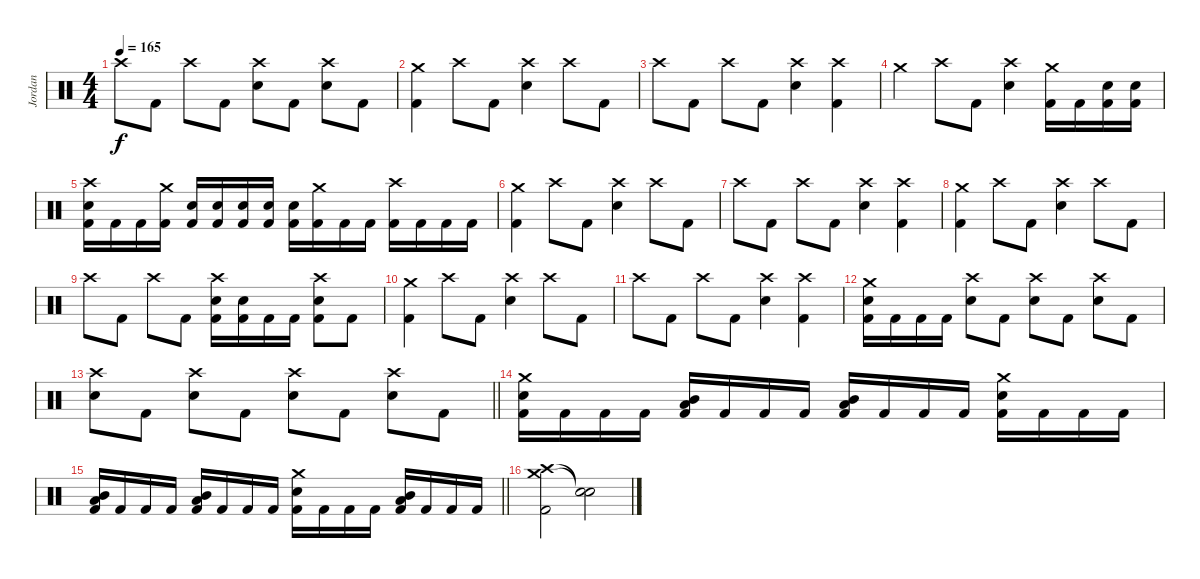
\track ("Jordan" "Jordan") {instrument percussion}
\staff {score}
\articulation defaults
\ts (4 4)
\tempo 165
\clef neutral
\ks c "Crash high (hit)".8{dy f} "Kick (hit) 2".8 "Crash high (hit)".8 "Kick (hit) 2".8
("Crash high (hit)" "Electric Snare (hit)").8 "Kick (hit) 2".8 ("Crash high (hit)" "Electric Snare (hit)").8 "Kick (hit) 2".8 |
("Crash medium (hit)" "Kick (hit) 2").4 "Crash high (hit)".8 "Kick (hit) 2".8 ("Crash high (hit)" "Electric Snare (hit)").4 "Crash high (hit)".8 "Kick (hit) 2".8 |
"Crash high (hit)".8 "Kick (hit) 2".8 "Crash high (hit)".8 "Kick (hit) 2".8 ("Crash high (hit)" "Electric Snare (hit)").4 ("Crash high (hit)" "Kick (hit) 2").4 |
"Crash medium (hit)".4 "Crash high (hit)".8 "Kick (hit) 2".8 ("Crash high (hit)" "Electric Snare (hit)").4 ("Crash medium (hit)" "Kick (hit) 2").16 "Kick (hit) 2".16 ("Electric Snare (hit)" "Kick (hit) 2").16 ("Electric Snare (hit)" "Kick (hit) 2").16 |
("Crash high (hit)" "Electric Snare (hit)" "Kick (hit) 2").16 "Kick (hit) 2".16 "Kick (hit) 2".16 ("Crash medium (hit)" "Kick (hit) 2").16 ("Electric Snare (hit)" "Kick (hit) 2").16 ("Electric Snare (hit)" "Kick (hit) 2").16 ("Electric Snare (hit)" "Kick (hit) 2").16 ("Electric Snare (hit)" "Kick (hit) 2").16 ("Electric Snare (hit)" "Kick (hit) 2").16 ("Crash medium (hit)" "Kick (hit) 2").16 "Kick (hit) 2".16 "Kick (hit) 2".16 ("Crash high (hit)" "Kick (hit) 2").16 "Kick (hit) 2".16 "Kick (hit) 2".16 "Kick (hit) 2".16 |
("Crash medium (hit)" "Kick (hit) 2").4 "Crash high (hit)".8 "Kick (hit) 2".8 ("Crash high (hit)" "Electric Snare (hit)").4 "Crash high (hit)".8 "Kick (hit) 2".8 |
"Crash high (hit)".8 "Kick (hit) 2".8 "Crash high (hit)".8 "Kick (hit) 2".8 ("Crash high (hit)" "Electric Snare (hit)").4 ("Crash high (hit)" "Kick (hit) 2").4 |
("Crash medium (hit)" "Kick (hit) 2").4 "Crash high (hit)".8 "Kick (hit) 2".8 ("Crash high (hit)" "Electric Snare (hit)").4 "Crash high (hit)".8 "Kick (hit) 2".8 |
"Crash high (hit)".8 "Kick (hit) 2".8 "Crash high (hit)".8 "Kick (hit) 2".8 ("Crash high (hit)" "Electric Snare (hit)" "Kick (hit) 2").16 ("Electric Snare (hit)" "Kick (hit) 2").16 "Kick (hit) 2".16 "Kick (hit) 2".16 ("Crash high (hit)" "Electric Snare (hit)" "Kick (hit) 2").8 "Kick (hit) 2".8 |
("Crash medium (hit)" "Kick (hit) 2").4 "Crash high (hit)".8 "Kick (hit) 2".8 ("Crash high (hit)" "Electric Snare (hit)").4 "Crash high (hit)".8 "Kick (hit) 2".8 |
"Crash high (hit)".8 "Kick (hit) 2".8 "Crash high (hit)".8 "Kick (hit) 2".8 ("Crash high (hit)" "Electric Snare (hit)").4 ("Crash high (hit)" "Kick (hit) 2").4 |
("Crash medium (hit)" "Electric Snare (hit)" "Kick (hit) 2").16 "Kick (hit) 2".16 "Kick (hit) 2".16 "Kick (hit) 2".16 ("Crash high (hit)" "Electric Snare (hit)").8 "Kick (hit) 2".8 ("Crash high (hit)" "Electric Snare (hit)").8 "Kick (hit) 2".8 ("Crash high (hit)" "Electric Snare (hit)").8 "Kick (hit) 2".8 |
\barLineRight lightlight
("Crash high (hit)" "Electric Snare (hit)").8 "Kick (hit) 2".8 ("Crash high (hit)" "Electric Snare (hit)").8 "Kick (hit) 2".8 ("Crash high (hit)" "Electric Snare (hit)").8 "Kick (hit) 2".8 ("Crash high (hit)" "Electric Snare (hit)").8 "Kick (hit) 2".8 |
("Crash medium (hit)" "Electric Snare (hit)" "Kick (hit) 2").16 "Kick (hit) 2".16 "Kick (hit) 2".16 "Kick (hit) 2".16 ("Mid Tom (hit)" "Low Tom (hit)" "Kick (hit) 2").16 "Kick (hit) 2".16 "Kick (hit) 2".16 "Kick (hit) 2".16 ("Mid Tom (hit)" "Low Tom (hit)" "Kick (hit) 2").16 "Kick (hit) 2".16 "Kick (hit) 2".16 "Kick (hit) 2".16 ("Crash medium (hit)" "Electric Snare (hit)" "Kick (hit) 2").16 "Kick (hit) 2".16 "Kick (hit) 2".16 "Kick (hit) 2".16 |
\barLineRight lightlight
("Mid Tom (hit)" "Low Tom (hit)" "Kick (hit) 2").16 "Kick (hit) 2".16 "Kick (hit) 2".16 "Kick (hit) 2".16 ("Mid Tom (hit)" "Low Tom (hit)" "Kick (hit) 2").16 "Kick (hit) 2".16 "Kick (hit) 2".16 "Kick (hit) 2".16 ("Crash medium (hit)" "Electric Snare (hit)" "Kick (hit) 2").16 "Kick (hit) 2".16 "Kick (hit) 2".16 "Kick (hit) 2".16 ("Mid Tom (hit)" "Low Tom (hit)" "Kick (hit) 2").16 "Kick (hit) 2".16 "Kick (hit) 2".16 "Kick (hit) 2".16 |
("Crash high (hit)" "Crash medium (hit)" "Kick (hit) 2").2 ("Snare (hit)"{t} "Snare (hit)"{t}).2{volume 0}
